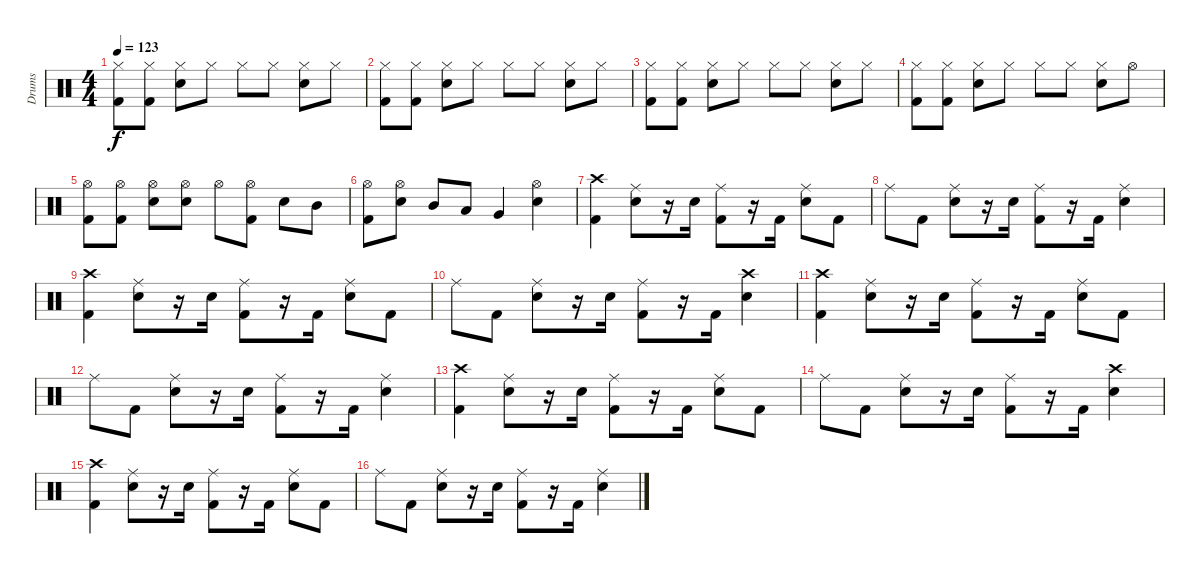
\track ("Drums" "Drums") {instrument percussion}
\staff {score}
\articulation defaults
\ts (4 4)
\tempo 123
\clef neutral
\ks c
("Hi-Hat (closed)" "Kick (hit) 2").8{dy f} ("Hi-Hat (closed)" "Kick (hit) 2").8 ("Hi-Hat (closed)" "Snare (hit) 2").8 "Hi-Hat (closed)".8 "Hi-Hat (closed)".8 "Hi-Hat (closed)".8 ("Hi-Hat (closed)" "Snare (hit) 2").8 "Hi-Hat (closed)".8 |
("Hi-Hat (closed)" "Kick (hit) 2").8 ("Hi-Hat (closed)" "Kick (hit) 2").8 ("Hi-Hat (closed)" "Snare (hit) 2").8 "Hi-Hat (closed)".8 "Hi-Hat (closed)".8 "Hi-Hat (closed)".8 ("Hi-Hat (closed)" "Snare (hit) 2").8 "Hi-Hat (closed)".8 |
("Hi-Hat (closed)" "Kick (hit) 2").8 ("Hi-Hat (closed)" "Kick (hit) 2").8 ("Hi-Hat (closed)" "Snare (hit) 2").8 "Hi-Hat (closed)".8 "Hi-Hat (closed)".8 "Hi-Hat (closed)".8 ("Hi-Hat (closed)" "Snare (hit) 2").8 "Hi-Hat (closed)".8 |
("Hi-Hat (closed)" "Kick (hit) 2").8 ("Hi-Hat (closed)" "Kick (hit) 2").8 ("Hi-Hat (closed)" "Snare (hit) 2").8 "Hi-Hat (closed)".8 "Hi-Hat (closed)".8 "Hi-Hat (closed)".8 ("Hi-Hat (closed)" "Snare (hit) 2").8 "Hi-Hat (open)".8 |
("Hi-Hat (open)" "Kick (hit) 2").8 ("Hi-Hat (open)" "Kick (hit) 2").8 ("Hi-Hat (open)" "Snare (hit) 2").8 ("Hi-Hat (open)" "Snare (hit) 2").8 "Hi-Hat (open)".8 ("Hi-Hat (open)" "Kick (hit) 2").8 "Snare (hit) 2".8 "Mid Tom (hit)".8 |
("Hi-Hat (open)" "Kick (hit) 2").8 ("Hi-Hat (open)" "Snare (hit) 2").8 "Mid Tom (hit)".8 "Low Tom (hit)".8 "Very Low Tom (hit)".4 ("Hi-Hat (open)" "Snare (hit) 2").4 |
("Crash high (hit)" "Kick (hit) 2").4 ("Ride (middle)" "Snare (hit) 2").8 r.16 "Snare (hit) 2".16 ("Ride (middle)" "Kick (hit) 2").8 r.16 "Kick (hit) 2".16 ("Ride (middle)" "Snare (hit) 2").8 "Kick (hit) 2".8 |
"Ride (middle)".8 "Kick (hit) 2".8 ("Ride (middle)" "Snare (hit) 2").8 r.16 "Snare (hit) 2".16 ("Ride (middle)" "Kick (hit) 2").8 r.16 "Kick (hit) 2".16 ("Ride (middle)" "Snare (hit) 2").4 |
("Crash high (hit)" "Kick (hit) 2").4 ("Ride (middle)" "Snare (hit) 2").8 r.16 "Snare (hit) 2".16 ("Ride (middle)" "Kick (hit) 2").8 r.16 "Kick (hit) 2".16 ("Ride (middle)" "Snare (hit) 2").8 "Kick (hit) 2".8 |
"Ride (middle)".8 "Kick (hit) 2".8 ("Ride (middle)" "Snare (hit) 2").8 r.16 "Snare (hit) 2".16 ("Ride (middle)" "Kick (hit) 2").8 r.16 "Kick (hit) 2".16 ("Crash high (hit)" "Snare (hit) 2").4 |
("Crash high (hit)" "Kick (hit) 2").4 ("Ride (middle)" "Snare (hit) 2").8 r.16 "Snare (hit) 2".16 ("Ride (middle)" "Kick (hit) 2").8 r.16 "Kick (hit) 2".16 ("Ride (middle)" "Snare (hit) 2").8 "Kick (hit) 2".8 |
"Ride (middle)".8 "Kick (hit) 2".8 ("Ride (middle)" "Snare (hit) 2").8 r.16 "Snare (hit) 2".16 ("Ride (middle)" "Kick (hit) 2").8 r.16 "Kick (hit) 2".16 ("Ride (middle)" "Snare (hit) 2").4 |
("Crash high (hit)" "Kick (hit) 2").4 ("Ride (middle)" "Snare (hit) 2").8 r.16 "Snare (hit) 2".16 ("Ride (middle)" "Kick (hit) 2").8 r.16 "Kick (hit) 2".16 ("Ride (middle)" "Snare (hit) 2").8 "Kick (hit) 2".8 |
"Ride (middle)".8 "Kick (hit) 2".8 ("Ride (middle)" "Snare (hit) 2").8 r.16 "Snare (hit) 2".16 ("Ride (middle)" "Kick (hit) 2").8 r.16 "Kick (hit) 2".16 ("Crash high (hit)" "Snare (hit) 2").4 |
("Crash high (hit)" "Kick (hit) 2").4 ("Ride (middle)" "Snare (hit) 2").8 r.16 "Snare (hit) 2".16 ("Ride (middle)" "Kick (hit) 2").8 r.16 "Kick (hit) 2".16 ("Ride (middle)" "Snare (hit) 2").8 "Kick (hit) 2".8 |
"Ride (middle)".8 "Kick (hit) 2".8 ("Ride (middle)" "Snare (hit) 2").8 r.16 "Snare (hit) 2".16 ("Ride (middle)" "Kick (hit) 2").8 r.16 "Kick (hit) 2".16 ("Ride (middle)" "Snare (hit) 2").4
